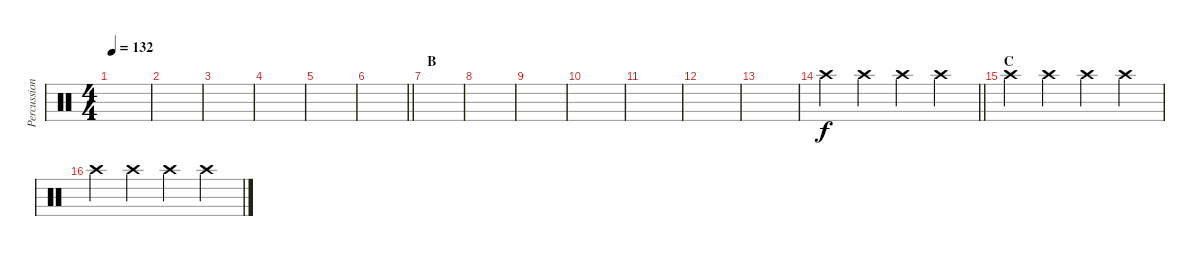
\track ("Percussions" "Percussion") {instrument percussion}
\staff {score}
\articulation defaults
\ts (4 4)
\tempo 132
\clef neutral
\ks c
|
|
|
|
|
\barLineRight lightlight
|
\section ("" "В")
|
|
|
|
|
|
|
\barLineRight lightlight "Crash high (hit)".4 "Crash high (hit)".4 "Crash high (hit)".4 "Crash high (hit)".4
|
\section ("" "С")
"Crash high (hit)".4 "Crash high (hit)".4 "Crash high (hit)".4 "Crash high (hit)".4 |
"Crash high (hit)".4 "Crash high (hit)".4 "Crash high (hit)".4 "Crash high (hit)".4
